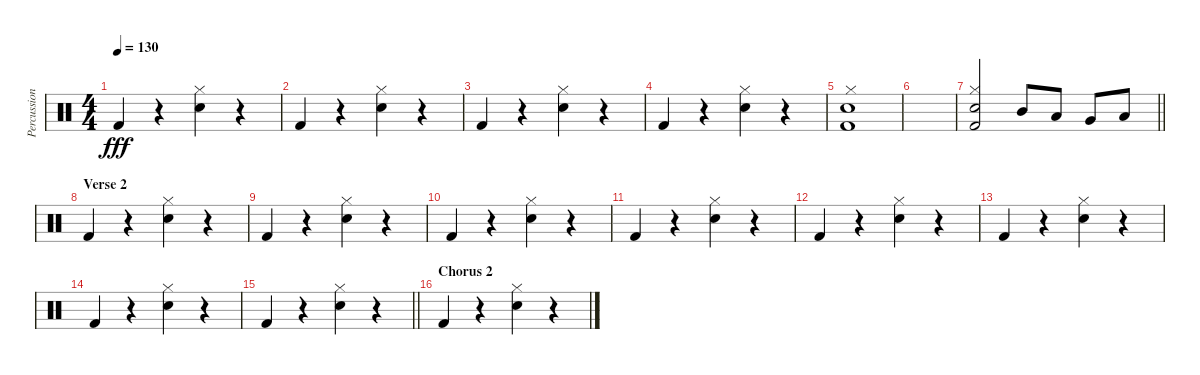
\track ("Percussion" "Percussion") {instrument percussion}
\staff {score}
\articulation defaults
\ts (4 4)
\tempo 130
\clef neutral
\ks c "Kick (hit) 2".4{dy fff}
r.4 ("Hi-Hat (closed)" "Snare (hit) 2").4 r.4 |
"Kick (hit) 2".4 r.4 ("Hi-Hat (closed)" "Snare (hit) 2").4 r.4 |
"Kick (hit) 2".4 r.4 ("Hi-Hat (closed)" "Snare (hit) 2").4 r.4 |
"Kick (hit) 2".4 r.4 ("Hi-Hat (closed)" "Snare (hit) 2").4 r.4 |
("Hi-Hat (closed)" "Snare (hit) 2" "Kick (hit) 2").1 |
|
\barLineRight lightlight
("Hi-Hat (closed)" "Snare (hit) 2" "Kick (hit) 2").2 "Mid Tom (hit)".8 "Low Tom (hit)".8 "Very Low Tom (hit)".8 "Low Floor Tom (hit)".8 |
\section ("" "Verse 2")
"Kick (hit) 2".4 r.4 ("Hi-Hat (closed)" "Snare (hit) 2").4 r.4 |
"Kick (hit) 2".4 r.4 ("Hi-Hat (closed)" "Snare (hit) 2").4 r.4 |
"Kick (hit) 2".4 r.4 ("Hi-Hat (closed)" "Snare (hit) 2").4 r.4 |
"Kick (hit) 2".4 r.4 ("Hi-Hat (closed)" "Snare (hit) 2").4 r.4 |
"Kick (hit) 2".4 r.4 ("Hi-Hat (closed)" "Snare (hit) 2").4 r.4 |
"Kick (hit) 2".4 r.4 ("Hi-Hat (closed)" "Snare (hit) 2").4 r.4 |
"Kick (hit) 2".4 r.4 ("Hi-Hat (closed)" "Snare (hit) 2").4 r.4 |
\barLineRight lightlight "Kick (hit) 2".4
r.4 ("Hi-Hat (closed)" "Snare (hit) 2").4 r.4 |
\section ("" "Chorus 2")
"Kick (hit) 2".4 r.4 ("Hi-Hat (closed)" "Snare (hit) 2").4 r.4
